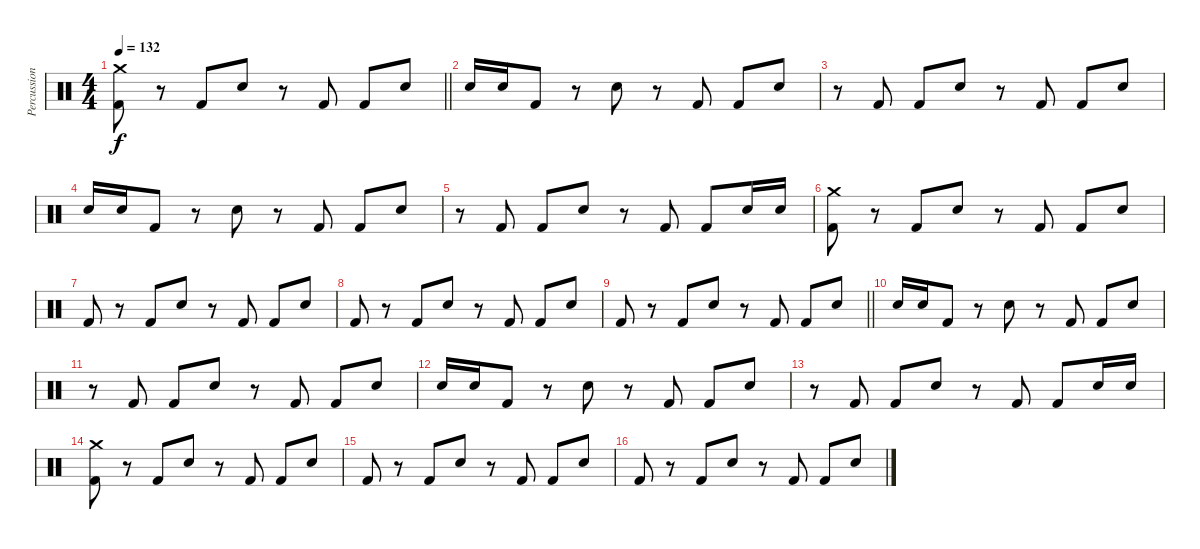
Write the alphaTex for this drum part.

\track ("Percussion" "Percussion") {instrument percussion}
\staff {score}
\articulation defaults
\ts (4 4)
\tempo 132
\clef neutral
\barLineRight lightlight
\ks c
("Crash medium (hit)" "Kick (hit) 2").8{dy f} r.8 "Kick (hit) 2".8 "Snare (hit) 2".8 r.8 "Kick (hit) 2".8 "Kick (hit) 2".8 "Snare (hit) 2".8 |
"Snare (hit) 2".16 "Snare (hit) 2".16 "Kick (hit) 2".8 r.8 "Snare (hit) 2".8 r.8 "Kick (hit) 2".8 "Kick (hit) 2".8 "Snare (hit) 2".8 |
r.8 "Kick (hit) 2".8 "Kick (hit) 2".8 "Snare (hit) 2".8 r.8 "Kick (hit) 2".8 "Kick (hit) 2".8 "Snare (hit) 2".8 |
"Snare (hit) 2".16 "Snare (hit) 2".16 "Kick (hit) 2".8 r.8 "Snare (hit) 2".8 r.8 "Kick (hit) 2".8 "Kick (hit) 2".8 "Snare (hit) 2".8 |
r.8 "Kick (hit) 2".8 "Kick (hit) 2".8 "Snare (hit) 2".8 r.8 "Kick (hit) 2".8 "Kick (hit) 2".8 "Snare (hit) 2".16 "Snare (hit) 2".16 |
("Crash medium (hit)" "Kick (hit) 2").8 r.8 "Kick (hit) 2".8 "Snare (hit) 2".8 r.8 "Kick (hit) 2".8 "Kick (hit) 2".8 "Snare (hit) 2".8 |
"Kick (hit) 2".8 r.8 "Kick (hit) 2".8 "Snare (hit) 2".8 r.8 "Kick (hit) 2".8 "Kick (hit) 2".8 "Snare (hit) 2".8 |
"Kick (hit) 2".8 r.8 "Kick (hit) 2".8 "Snare (hit) 2".8 r.8 "Kick (hit) 2".8 "Kick (hit) 2".8 "Snare (hit) 2".8 |
\barLineRight lightlight "Kick (hit) 2".8
r.8 "Kick (hit) 2".8 "Snare (hit) 2".8 r.8 "Kick (hit) 2".8 "Kick (hit) 2".8 "Snare (hit) 2".8 |
"Snare (hit) 2".16 "Snare (hit) 2".16 "Kick (hit) 2".8 r.8 "Snare (hit) 2".8 r.8 "Kick (hit) 2".8 "Kick (hit) 2".8 "Snare (hit) 2".8 |
r.8 "Kick (hit) 2".8 "Kick (hit) 2".8 "Snare (hit) 2".8 r.8 "Kick (hit) 2".8 "Kick (hit) 2".8 "Snare (hit) 2".8 |
"Snare (hit) 2".16 "Snare (hit) 2".16 "Kick (hit) 2".8 r.8 "Snare (hit) 2".8 r.8 "Kick (hit) 2".8 "Kick (hit) 2".8 "Snare (hit) 2".8 |
r.8 "Kick (hit) 2".8 "Kick (hit) 2".8 "Snare (hit) 2".8 r.8 "Kick (hit) 2".8 "Kick (hit) 2".8 "Snare (hit) 2".16 "Snare (hit) 2".16 |
("Crash medium (hit)" "Kick (hit) 2").8 r.8 "Kick (hit) 2".8 "Snare (hit) 2".8 r.8 "Kick (hit) 2".8 "Kick (hit) 2".8 "Snare (hit) 2".8 |
"Kick (hit) 2".8 r.8 "Kick (hit) 2".8 "Snare (hit) 2".8 r.8 "Kick (hit) 2".8 "Kick (hit) 2".8 "Snare (hit) 2".8 |
"Kick (hit) 2".8 r.8 "Kick (hit) 2".8 "Snare (hit) 2".8 r.8 "Kick (hit) 2".8 "Kick (hit) 2".8 "Snare (hit) 2".8
